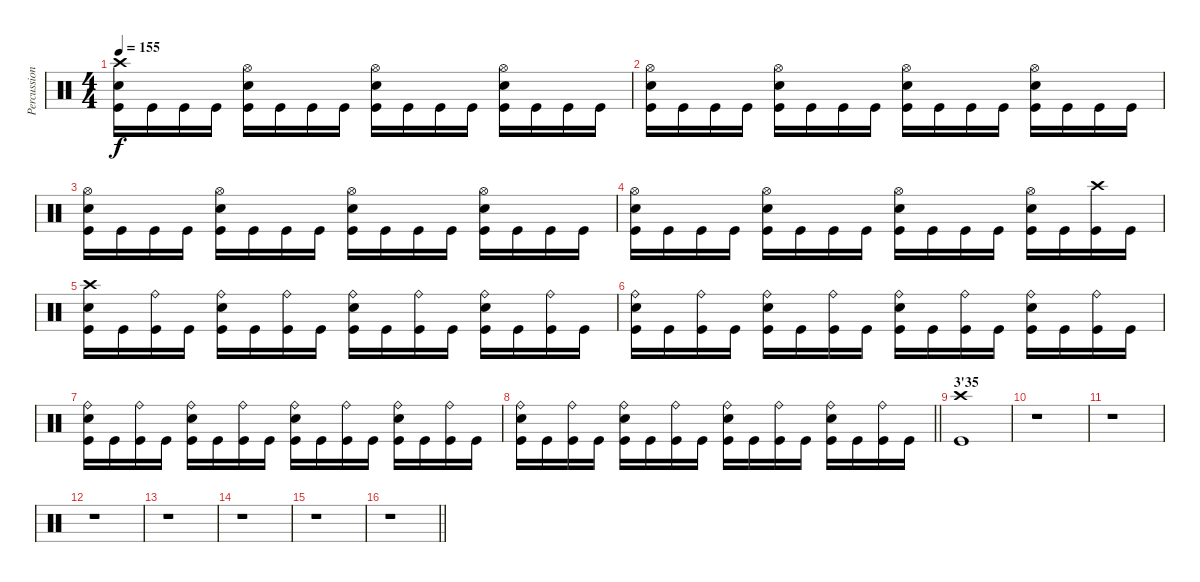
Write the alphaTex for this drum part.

\track ("Percussions" "Percussion") {instrument percussion}
\staff {score}
\articulation defaults
\ts (4 4)
\tempo 155
\clef neutral
\ks c
("Crash high (hit)" "Electric Snare (hit)" "Kick (hit)").16{dy f} "Kick (hit)".16 "Kick (hit)".16 "Kick (hit)".16 ("Hi-Hat (open)" "Electric Snare (hit)" "Kick (hit)").16 "Kick (hit)".16 "Kick (hit)".16 "Kick (hit)".16 ("Hi-Hat (open)" "Electric Snare (hit)" "Kick (hit)").16 "Kick (hit)".16 "Kick (hit)".16 "Kick (hit)".16 ("Hi-Hat (open)" "Electric Snare (hit)" "Kick (hit)").16 "Kick (hit)".16 "Kick (hit)".16 "Kick (hit)".16 |
("Hi-Hat (open)" "Electric Snare (hit)" "Kick (hit)").16 "Kick (hit)".16 "Kick (hit)".16 "Kick (hit)".16 ("Hi-Hat (open)" "Electric Snare (hit)" "Kick (hit)").16 "Kick (hit)".16 "Kick (hit)".16 "Kick (hit)".16 ("Hi-Hat (open)" "Electric Snare (hit)" "Kick (hit)").16 "Kick (hit)".16 "Kick (hit)".16 "Kick (hit)".16 ("Hi-Hat (open)" "Electric Snare (hit)" "Kick (hit)").16 "Kick (hit)".16 "Kick (hit)".16 "Kick (hit)".16 |
("Hi-Hat (open)" "Electric Snare (hit)" "Kick (hit)").16 "Kick (hit)".16 "Kick (hit)".16 "Kick (hit)".16 ("Hi-Hat (open)" "Electric Snare (hit)" "Kick (hit)").16 "Kick (hit)".16 "Kick (hit)".16 "Kick (hit)".16 ("Hi-Hat (open)" "Electric Snare (hit)" "Kick (hit)").16 "Kick (hit)".16 "Kick (hit)".16 "Kick (hit)".16 ("Hi-Hat (open)" "Electric Snare (hit)" "Kick (hit)").16 "Kick (hit)".16 "Kick (hit)".16 "Kick (hit)".16 |
("Hi-Hat (open)" "Electric Snare (hit)" "Kick (hit)").16 "Kick (hit)".16 "Kick (hit)".16 "Kick (hit)".16 ("Hi-Hat (open)" "Electric Snare (hit)" "Kick (hit)").16 "Kick (hit)".16 "Kick (hit)".16 "Kick (hit)".16 ("Hi-Hat (open)" "Electric Snare (hit)" "Kick (hit)").16 "Kick (hit)".16 "Kick (hit)".16 "Kick (hit)".16 ("Hi-Hat (open)" "Electric Snare (hit)" "Kick (hit)").16 "Kick (hit)".16 ("Crash high (hit)" "Kick (hit)").16 "Kick (hit)".16 |
("Crash high (hit)" "Electric Snare (hit)" "Kick (hit)").16 "Kick (hit)".16 ("Ride (bell)" "Kick (hit)").16 "Kick (hit)".16 ("Ride (bell)" "Electric Snare (hit)" "Kick (hit)").16 "Kick (hit)".16 ("Ride (bell)" "Kick (hit)").16 "Kick (hit)".16 ("Ride (bell)" "Electric Snare (hit)" "Kick (hit)").16 "Kick (hit)".16 ("Ride (bell)" "Kick (hit)").16 "Kick (hit)".16 ("Ride (bell)" "Electric Snare (hit)" "Kick (hit)").16 "Kick (hit)".16 ("Ride (bell)" "Kick (hit)").16 "Kick (hit)".16 |
("Ride (bell)" "Electric Snare (hit)" "Kick (hit)").16 "Kick (hit)".16 ("Ride (bell)" "Kick (hit)").16 "Kick (hit)".16 ("Ride (bell)" "Electric Snare (hit)" "Kick (hit)").16 "Kick (hit)".16 ("Ride (bell)" "Kick (hit)").16 "Kick (hit)".16 ("Ride (bell)" "Electric Snare (hit)" "Kick (hit)").16 "Kick (hit)".16 ("Ride (bell)" "Kick (hit)").16 "Kick (hit)".16 ("Ride (bell)" "Electric Snare (hit)" "Kick (hit)").16 "Kick (hit)".16 ("Ride (bell)" "Kick (hit)").16 "Kick (hit)".16 |
("Ride (bell)" "Electric Snare (hit)" "Kick (hit)").16 "Kick (hit)".16 ("Ride (bell)" "Kick (hit)").16 "Kick (hit)".16 ("Ride (bell)" "Electric Snare (hit)" "Kick (hit)").16 "Kick (hit)".16 ("Ride (bell)" "Kick (hit)").16 "Kick (hit)".16 ("Ride (bell)" "Electric Snare (hit)" "Kick (hit)").16 "Kick (hit)".16 ("Ride (bell)" "Kick (hit)").16 "Kick (hit)".16 ("Ride (bell)" "Electric Snare (hit)" "Kick (hit)").16 "Kick (hit)".16 ("Ride (bell)" "Kick (hit)").16 "Kick (hit)".16 |
\barLineRight lightlight
("Ride (bell)" "Electric Snare (hit)" "Kick (hit)").16 "Kick (hit)".16 ("Ride (bell)" "Kick (hit)").16 "Kick (hit)".16 ("Ride (bell)" "Electric Snare (hit)" "Kick (hit)").16 "Kick (hit)".16 ("Ride (bell)" "Kick (hit)").16 "Kick (hit)".16 ("Ride (bell)" "Electric Snare (hit)" "Kick (hit)").16 "Kick (hit)".16 ("Ride (bell)" "Kick (hit)").16 "Kick (hit)".16 ("Ride (bell)" "Electric Snare (hit)" "Kick (hit)").16 "Kick (hit)".16 ("Ride (bell)" "Kick (hit)").16 "Kick (hit)".16 |
\section ("" "3'35")
("Crash high (hit)" "Kick (hit)").1 |
r.1 |
r.1 |
r.1 |
r.1 |
r.1 |
r.1 |
\barLineRight lightlight
r.1
